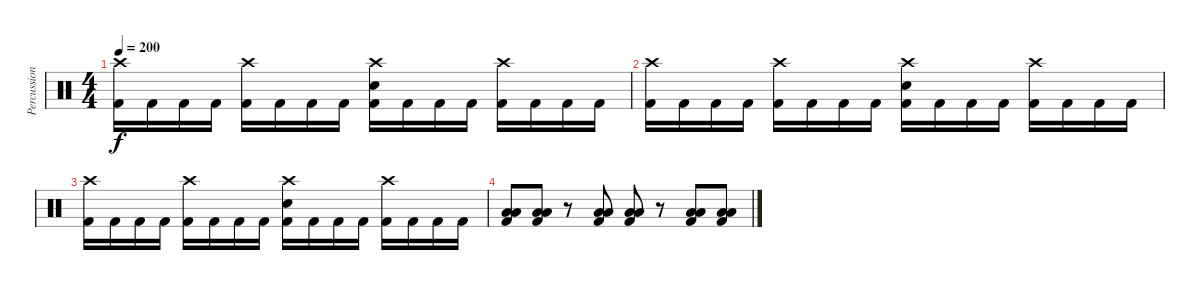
\track ("Percussions" "Percussion") {instrument percussion}
\staff {score}
\articulation defaults
\ts (4 4)
\tempo 200
\clef neutral
\ks c
("Crash high (hit)" "Kick (hit) 2").16{dy f} "Kick (hit) 2".16 "Kick (hit) 2".16 "Kick (hit) 2".16 ("Crash high (hit)" "Kick (hit) 2").16 "Kick (hit) 2".16 "Kick (hit) 2".16 "Kick (hit) 2".16 ("Crash high (hit)" "Snare (hit) 2" "Kick (hit) 2").16 "Kick (hit) 2".16 "Kick (hit) 2".16 "Kick (hit) 2".16 ("Crash high (hit)" "Kick (hit) 2").16 "Kick (hit) 2".16 "Kick (hit) 2".16 "Kick (hit) 2".16 |
("Crash high (hit)" "Kick (hit) 2").16 "Kick (hit) 2".16 "Kick (hit) 2".16 "Kick (hit) 2".16 ("Crash high (hit)" "Kick (hit) 2").16 "Kick (hit) 2".16 "Kick (hit) 2".16 "Kick (hit) 2".16 ("Crash high (hit)" "Snare (hit) 2" "Kick (hit) 2").16 "Kick (hit) 2".16 "Kick (hit) 2".16 "Kick (hit) 2".16 ("Crash high (hit)" "Kick (hit) 2").16 "Kick (hit) 2".16 "Kick (hit) 2".16 "Kick (hit) 2".16 |
("Crash high (hit)" "Kick (hit) 2").16 "Kick (hit) 2".16 "Kick (hit) 2".16 "Kick (hit) 2".16 ("Crash high (hit)" "Kick (hit) 2").16 "Kick (hit) 2".16 "Kick (hit) 2".16 "Kick (hit) 2".16 ("Crash high (hit)" "Snare (hit) 2" "Kick (hit) 2").16 "Kick (hit) 2".16 "Kick (hit) 2".16 "Kick (hit) 2".16 ("Crash high (hit)" "Kick (hit) 2").16 "Kick (hit) 2".16 "Kick (hit) 2".16 "Kick (hit) 2".16 |
("Low Floor Tom (hit)" "Low Floor Tom (hit)" "Kick (hit) 2").8 ("Low Floor Tom (hit)" "Low Floor Tom (hit)" "Kick (hit) 2").8 r.8 ("Low Floor Tom (hit)" "Low Floor Tom (hit)" "Kick (hit) 2").8 ("Low Floor Tom (hit)" "Low Floor Tom (hit)" "Kick (hit) 2").8 r.8 ("Low Floor Tom (hit)" "Low Floor Tom (hit)" "Kick (hit) 2").8 ("Low Floor Tom (hit)" "Low Floor Tom (hit)" "Kick (hit) 2").8
